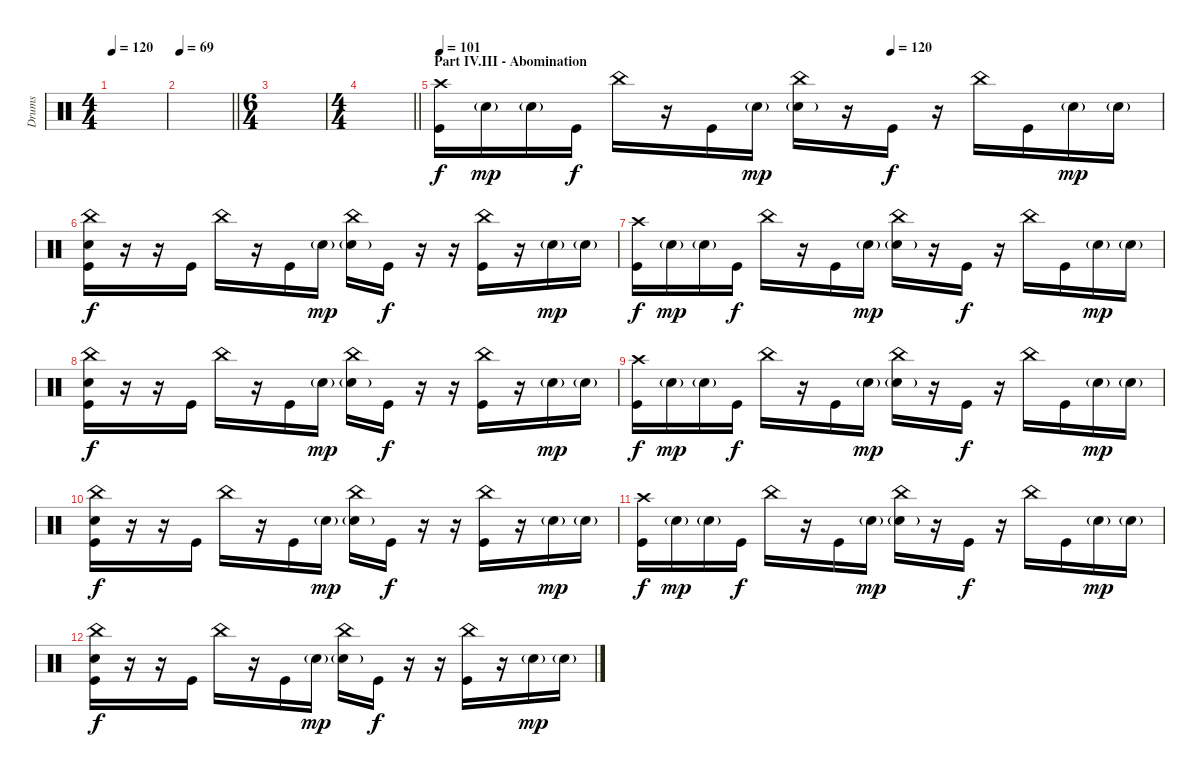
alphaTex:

\track ("Drums" "Drums") {instrument percussion}
\staff
\articulation defaults
\ts (4 4)
\tempo 120
\clef neutral
\ks c
|
\tempo 69
\barLineRight lightlight
|
\ts (6 4)
|
\ts (4 4)
\barLineRight lightlight
|
\section ("" "Part IV.III - Abomination")
\tempo 101
\tempo (120 0.625)
("Crash high (hit)" "Kick (hit)").16 "Electric Snare (hit)"{g}.16{dy mp} "Electric Snare (hit)"{g}.16 "Kick (hit)".16{dy f} "China (hit)".16 r.16 "Kick (hit)".16 "Electric Snare (hit)"{g}.16{dy mp} ("China (hit)" "Electric Snare (hit)"{g}).16 r.16 "Kick (hit)".16{dy f} r.16 "China (hit)".16 "Kick (hit)".16 "Electric Snare (hit)"{g}.16{dy mp} "Electric Snare (hit)"{g}.16 |
("China (hit)" "Electric Snare (hit)" "Kick (hit)").16{dy f} r.16 r.16 "Kick (hit)".16 "China (hit)".16 r.16 "Kick (hit)".16 "Electric Snare (hit)"{g}.16{dy mp} ("China (hit)" "Electric Snare (hit)"{g}).16 "Kick (hit)".16{dy f} r.16 r.16 ("China (hit)" "Kick (hit)").16 r.16 "Electric Snare (hit)"{g}.16{dy mp} "Electric Snare (hit)"{g}.16 |
("Crash high (hit)" "Kick (hit)").16{dy f} "Electric Snare (hit)"{g}.16{dy mp} "Electric Snare (hit)"{g}.16 "Kick (hit)".16{dy f} "China (hit)".16 r.16 "Kick (hit)".16 "Electric Snare (hit)"{g}.16{dy mp} ("China (hit)" "Electric Snare (hit)"{g}).16 r.16 "Kick (hit)".16{dy f} r.16 "China (hit)".16 "Kick (hit)".16 "Electric Snare (hit)"{g}.16{dy mp} "Electric Snare (hit)"{g}.16 |
("China (hit)" "Electric Snare (hit)" "Kick (hit)").16{dy f} r.16 r.16 "Kick (hit)".16 "China (hit)".16 r.16 "Kick (hit)".16 "Electric Snare (hit)"{g}.16{dy mp} ("China (hit)" "Electric Snare (hit)"{g}).16 "Kick (hit)".16{dy f} r.16 r.16 ("China (hit)" "Kick (hit)").16 r.16 "Electric Snare (hit)"{g}.16{dy mp} "Electric Snare (hit)"{g}.16 |
("Crash high (hit)" "Kick (hit)").16{dy f} "Electric Snare (hit)"{g}.16{dy mp} "Electric Snare (hit)"{g}.16 "Kick (hit)".16{dy f} "China (hit)".16 r.16 "Kick (hit)".16 "Electric Snare (hit)"{g}.16{dy mp} ("China (hit)" "Electric Snare (hit)"{g}).16 r.16 "Kick (hit)".16{dy f} r.16 "China (hit)".16 "Kick (hit)".16 "Electric Snare (hit)"{g}.16{dy mp} "Electric Snare (hit)"{g}.16 |
("China (hit)" "Electric Snare (hit)" "Kick (hit)").16{dy f} r.16 r.16 "Kick (hit)".16 "China (hit)".16 r.16 "Kick (hit)".16 "Electric Snare (hit)"{g}.16{dy mp} ("China (hit)" "Electric Snare (hit)"{g}).16 "Kick (hit)".16{dy f} r.16 r.16 ("China (hit)" "Kick (hit)").16 r.16 "Electric Snare (hit)"{g}.16{dy mp} "Electric Snare (hit)"{g}.16 |
("Crash high (hit)" "Kick (hit)").16{dy f} "Electric Snare (hit)"{g}.16{dy mp} "Electric Snare (hit)"{g}.16 "Kick (hit)".16{dy f} "China (hit)".16 r.16 "Kick (hit)".16 "Electric Snare (hit)"{g}.16{dy mp} ("China (hit)" "Electric Snare (hit)"{g}).16 r.16 "Kick (hit)".16{dy f} r.16 "China (hit)".16 "Kick (hit)".16 "Electric Snare (hit)"{g}.16{dy mp} "Electric Snare (hit)"{g}.16 |
("China (hit)" "Electric Snare (hit)" "Kick (hit)").16{dy f} r.16 r.16 "Kick (hit)".16 "China (hit)".16 r.16 "Kick (hit)".16 "Electric Snare (hit)"{g}.16{dy mp} ("China (hit)" "Electric Snare (hit)"{g}).16 "Kick (hit)".16{dy f} r.16 r.16 ("China (hit)" "Kick (hit)").16 r.16 "Electric Snare (hit)"{g}.16{dy mp} "Electric Snare (hit)"{g}.16
